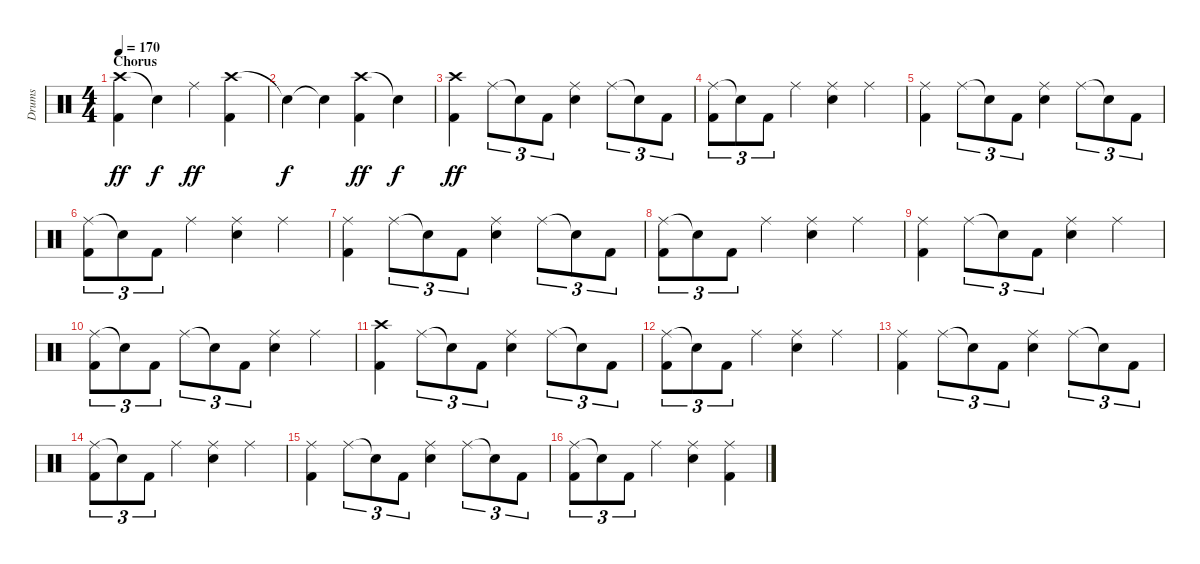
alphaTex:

\track ("Drums" "Drums") {instrument percussion}
\staff {score}
\articulation defaults
\ts (4 4)
\section ("" "Chorus")
\tempo 170
\clef neutral
\ks c
("Crash high (hit)" "Kick (hit) 2").4{dy ff} "Snare (hit)"{t}.4{dy f} "Ride (middle)".4{dy ff} ("Crash high (hit)" "Kick (hit) 2").4 |
"Snare (hit)"{t}.4{dy f} "Snare (hit)"{t}.4 ("Crash high (hit)" "Kick (hit) 2").4{dy ff} "Snare (hit)"{t}.4{dy f} |
("Crash high (hit)" "Kick (hit) 2").4{dy ff} "Ride (middle)".8{tu (3 2)} "Snare (hit)"{t}.8{tu (3 2)} "Kick (hit) 2".8{tu (3 2)} ("Ride (middle)" "Snare (hit) 2").4 "Ride (middle)".8{tu (3 2)} "Snare (hit)"{t}.8{tu (3 2)} "Kick (hit) 2".8{tu (3 2)} |
("Ride (middle)" "Kick (hit) 2").8{tu (3 2)} "Snare (hit)"{t}.8{tu (3 2)} "Kick (hit) 2".8{tu (3 2)} "Ride (middle)".4 ("Ride (middle)" "Snare (hit) 2").4 "Ride (middle)".4 |
("Ride (middle)" "Kick (hit) 2").4 "Ride (middle)".8{tu (3 2)} "Snare (hit)"{t}.8{tu (3 2)} "Kick (hit) 2".8{tu (3 2)} ("Ride (middle)" "Snare (hit) 2").4 "Ride (middle)".8{tu (3 2)} "Snare (hit)"{t}.8{tu (3 2)} "Kick (hit) 2".8{tu (3 2)} |
("Ride (middle)" "Kick (hit) 2").8{tu (3 2)} "Snare (hit)"{t}.8{tu (3 2)} "Kick (hit) 2".8{tu (3 2)} "Ride (middle)".4 ("Ride (middle)" "Snare (hit) 2").4 "Ride (middle)".4 |
("Ride (middle)" "Kick (hit) 2").4 "Ride (middle)".8{tu (3 2)} "Snare (hit)"{t}.8{tu (3 2)} "Kick (hit) 2".8{tu (3 2)} ("Ride (middle)" "Snare (hit) 2").4 "Ride (middle)".8{tu (3 2)} "Snare (hit)"{t}.8{tu (3 2)} "Kick (hit) 2".8{tu (3 2)} |
("Ride (middle)" "Kick (hit) 2").8{tu (3 2)} "Snare (hit)"{t}.8{tu (3 2)} "Kick (hit) 2".8{tu (3 2)} "Ride (middle)".4 ("Ride (middle)" "Snare (hit) 2").4 "Ride (middle)".4 |
("Ride (middle)" "Kick (hit) 2").4 "Ride (middle)".8{tu (3 2)} "Snare (hit)"{t}.8{tu (3 2)} "Kick (hit) 2".8{tu (3 2)} ("Ride (middle)" "Snare (hit) 2").4 "Ride (middle)".4 |
("Ride (middle)" "Kick (hit) 2").8{tu (3 2)} "Snare (hit)"{t}.8{tu (3 2)} "Kick (hit) 2".8{tu (3 2)} "Ride (middle)".8{tu (3 2)} "Snare (hit)"{t}.8{tu (3 2)} "Kick (hit) 2".8{tu (3 2)} ("Ride (middle)" "Snare (hit) 2").4 "Ride (middle)".4 |
("Crash high (hit)" "Kick (hit) 2").4 "Ride (middle)".8{tu (3 2)} "Snare (hit)"{t}.8{tu (3 2)} "Kick (hit) 2".8{tu (3 2)} ("Ride (middle)" "Snare (hit) 2").4 "Ride (middle)".8{tu (3 2)} "Snare (hit)"{t}.8{tu (3 2)} "Kick (hit) 2".8{tu (3 2)} |
("Ride (middle)" "Kick (hit) 2").8{tu (3 2)} "Snare (hit)"{t}.8{tu (3 2)} "Kick (hit) 2".8{tu (3 2)} "Ride (middle)".4 ("Ride (middle)" "Snare (hit) 2").4 "Ride (middle)".4 |
("Ride (middle)" "Kick (hit) 2").4 "Ride (middle)".8{tu (3 2)} "Snare (hit)"{t}.8{tu (3 2)} "Kick (hit) 2".8{tu (3 2)} ("Ride (middle)" "Snare (hit) 2").4 "Ride (middle)".8{tu (3 2)} "Snare (hit)"{t}.8{tu (3 2)} "Kick (hit) 2".8{tu (3 2)} |
("Ride (middle)" "Kick (hit) 2").8{tu (3 2)} "Snare (hit)"{t}.8{tu (3 2)} "Kick (hit) 2".8{tu (3 2)} "Ride (middle)".4 ("Ride (middle)" "Snare (hit) 2").4 "Ride (middle)".4 |
("Ride (middle)" "Kick (hit) 2").4 "Ride (middle)".8{tu (3 2)} "Snare (hit)"{t}.8{tu (3 2)} "Kick (hit) 2".8{tu (3 2)} ("Ride (middle)" "Snare (hit) 2").4 "Ride (middle)".8{tu (3 2)} "Snare (hit)"{t}.8{tu (3 2)} "Kick (hit) 2".8{tu (3 2)} |
("Ride (middle)" "Kick (hit) 2").8{tu (3 2)} "Snare (hit)"{t}.8{tu (3 2)} "Kick (hit) 2".8{tu (3 2)} "Ride (middle)".4 ("Ride (middle)" "Snare (hit) 2").4 ("Ride (middle)" "Kick (hit) 2").4
